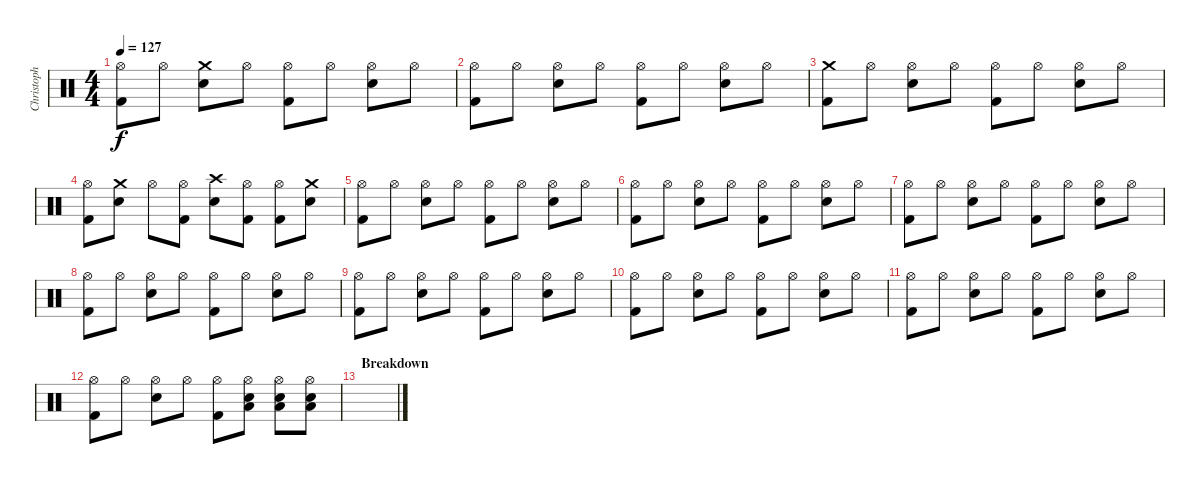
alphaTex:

\track ("Christoph Doom Schneider - Drums" "Christoph ") {instrument percussion}
\staff {score}
\articulation defaults
\ts (4 4)
\tempo 127
\clef neutral
\ks c
("Hi-Hat (open)" "Kick (hit) 2").8{dy f} "Hi-Hat (open)".8 ("Crash medium (hit)" "Electric Snare (hit)").8 "Hi-Hat (open)".8 ("Hi-Hat (open)" "Kick (hit) 2").8 "Hi-Hat (open)".8 ("Hi-Hat (open)" "Electric Snare (hit)").8 "Hi-Hat (open)".8 |
("Hi-Hat (open)" "Kick (hit) 2").8 "Hi-Hat (open)".8 ("Hi-Hat (open)" "Electric Snare (hit)").8 "Hi-Hat (open)".8 ("Hi-Hat (open)" "Kick (hit) 2").8 "Hi-Hat (open)".8 ("Hi-Hat (open)" "Electric Snare (hit)").8 "Hi-Hat (open)".8 |
("Crash medium (hit)" "Kick (hit) 2").8 "Hi-Hat (open)".8 ("Hi-Hat (open)" "Electric Snare (hit)").8 "Hi-Hat (open)".8 ("Hi-Hat (open)" "Kick (hit) 2").8 "Hi-Hat (open)".8 ("Hi-Hat (open)" "Electric Snare (hit)").8 "Hi-Hat (open)".8 |
("Hi-Hat (open)" "Kick (hit) 2").8 ("Crash medium (hit)" "Electric Snare (hit)").8 "Hi-Hat (open)".8 ("Hi-Hat (open)" "Kick (hit) 2").8 ("Crash high (hit)" "Electric Snare (hit)").8 ("Hi-Hat (open)" "Kick (hit) 2").8 ("Hi-Hat (open)" "Kick (hit) 2").8 ("Crash medium (hit)" "Electric Snare (hit)").8 |
("Hi-Hat (open)" "Kick (hit) 2").8 "Hi-Hat (open)".8 ("Hi-Hat (open)" "Electric Snare (hit)").8 "Hi-Hat (open)".8 ("Hi-Hat (open)" "Kick (hit) 2").8 "Hi-Hat (open)".8 ("Hi-Hat (open)" "Electric Snare (hit)").8 "Hi-Hat (open)".8 |
("Hi-Hat (open)" "Kick (hit) 2").8 "Hi-Hat (open)".8 ("Hi-Hat (open)" "Electric Snare (hit)").8 "Hi-Hat (open)".8 ("Hi-Hat (open)" "Kick (hit) 2").8 "Hi-Hat (open)".8 ("Hi-Hat (open)" "Electric Snare (hit)").8 "Hi-Hat (open)".8 |
("Hi-Hat (open)" "Kick (hit) 2").8 "Hi-Hat (open)".8 ("Hi-Hat (open)" "Electric Snare (hit)").8 "Hi-Hat (open)".8 ("Hi-Hat (open)" "Kick (hit) 2").8 "Hi-Hat (open)".8 ("Hi-Hat (open)" "Electric Snare (hit)").8 "Hi-Hat (open)".8 |
("Hi-Hat (open)" "Kick (hit) 2").8 "Hi-Hat (open)".8 ("Hi-Hat (open)" "Electric Snare (hit)").8 "Hi-Hat (open)".8 ("Hi-Hat (open)" "Kick (hit) 2").8 "Hi-Hat (open)".8 ("Hi-Hat (open)" "Electric Snare (hit)").8 "Hi-Hat (open)".8 |
("Hi-Hat (open)" "Kick (hit) 2").8 "Hi-Hat (open)".8 ("Hi-Hat (open)" "Electric Snare (hit)").8 "Hi-Hat (open)".8 ("Hi-Hat (open)" "Kick (hit) 2").8 "Hi-Hat (open)".8 ("Hi-Hat (open)" "Electric Snare (hit)").8 "Hi-Hat (open)".8 |
("Hi-Hat (open)" "Kick (hit) 2").8 "Hi-Hat (open)".8 ("Hi-Hat (open)" "Electric Snare (hit)").8 "Hi-Hat (open)".8 ("Hi-Hat (open)" "Kick (hit) 2").8 "Hi-Hat (open)".8 ("Hi-Hat (open)" "Electric Snare (hit)").8 "Hi-Hat (open)".8 |
("Hi-Hat (open)" "Kick (hit) 2").8 "Hi-Hat (open)".8 ("Hi-Hat (open)" "Electric Snare (hit)").8 "Hi-Hat (open)".8 ("Hi-Hat (open)" "Kick (hit) 2").8 "Hi-Hat (open)".8 ("Hi-Hat (open)" "Electric Snare (hit)").8 "Hi-Hat (open)".8 |
("Hi-Hat (open)" "Kick (hit) 2").8 "Hi-Hat (open)".8 ("Hi-Hat (open)" "Electric Snare (hit)").8 "Hi-Hat (open)".8 ("Hi-Hat (open)" "Kick (hit) 2").8 ("Hi-Hat (open)" "Low Floor Tom (hit)" "Electric Snare (hit)").8 ("Hi-Hat (open)" "Low Floor Tom (hit)" "Electric Snare (hit)").8 ("Hi-Hat (open)" "Low Floor Tom (hit)" "Electric Snare (hit)").8 |
\section ("" "Breakdown")
